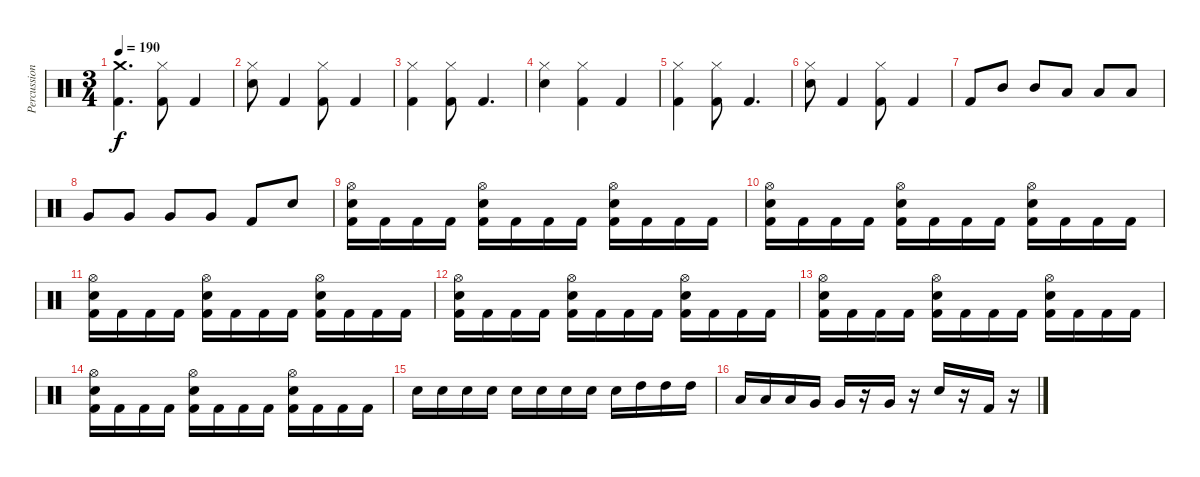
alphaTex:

\track ("Percussion" "Percussion") {instrument percussion}
\staff {score}
\articulation defaults
\ts (3 4)
\tempo 190
\clef neutral
\ks c
("Kick (hit) 2" "Crash medium (hit)").4{d dy f} ("Kick (hit) 2" "Hi-Hat (closed)").8 "Kick (hit) 2".4 |
("Snare (hit) 2" "Hi-Hat (closed)").8 "Kick (hit) 2".4 ("Kick (hit) 2" "Hi-Hat (closed)").8 "Kick (hit) 2".4 |
("Kick (hit) 2" "Hi-Hat (closed)").4 ("Kick (hit) 2" "Hi-Hat (closed)").8 "Kick (hit) 2".4{d} |
("Snare (hit) 2" "Hi-Hat (closed)").4 ("Kick (hit) 2" "Hi-Hat (closed)").4 "Kick (hit) 2".4 |
("Kick (hit) 2" "Hi-Hat (closed)").4 ("Kick (hit) 2" "Hi-Hat (closed)").8 "Kick (hit) 2".4{d} |
("Snare (hit) 2" "Hi-Hat (closed)").8 "Kick (hit) 2".4 ("Kick (hit) 2" "Hi-Hat (closed)").8 "Kick (hit) 2".4 |
"Kick (hit) 2".8 "Mid Tom (hit)".8 "Mid Tom (hit)".8 "Low Tom (hit)".8 "Low Tom (hit)".8 "Low Tom (hit)".8 |
"Very Low Tom (hit)".8 "Very Low Tom (hit)".8 "Very Low Tom (hit)".8 "Very Low Tom (hit)".8 "Kick (hit) 2".8 "Snare (hit) 2".8 |
("Kick (hit) 2" "Snare (hit) 2" "Hi-Hat (open)").16 "Kick (hit) 2".16 "Kick (hit) 2".16 "Kick (hit) 2".16 ("Kick (hit) 2" "Snare (hit) 2" "Hi-Hat (open)").16 "Kick (hit) 2".16 "Kick (hit) 2".16 "Kick (hit) 2".16 ("Kick (hit) 2" "Snare (hit) 2" "Hi-Hat (open)").16 "Kick (hit) 2".16 "Kick (hit) 2".16 "Kick (hit) 2".16 |
("Kick (hit) 2" "Snare (hit) 2" "Hi-Hat (open)").16 "Kick (hit) 2".16 "Kick (hit) 2".16 "Kick (hit) 2".16 ("Kick (hit) 2" "Snare (hit) 2" "Hi-Hat (open)").16 "Kick (hit) 2".16 "Kick (hit) 2".16 "Kick (hit) 2".16 ("Kick (hit) 2" "Snare (hit) 2" "Hi-Hat (open)").16 "Kick (hit) 2".16 "Kick (hit) 2".16 "Kick (hit) 2".16 |
("Kick (hit) 2" "Snare (hit) 2" "Hi-Hat (open)").16 "Kick (hit) 2".16 "Kick (hit) 2".16 "Kick (hit) 2".16 ("Kick (hit) 2" "Snare (hit) 2" "Hi-Hat (open)").16 "Kick (hit) 2".16 "Kick (hit) 2".16 "Kick (hit) 2".16 ("Kick (hit) 2" "Snare (hit) 2" "Hi-Hat (open)").16 "Kick (hit) 2".16 "Kick (hit) 2".16 "Kick (hit) 2".16 |
("Kick (hit) 2" "Snare (hit) 2" "Hi-Hat (open)").16 "Kick (hit) 2".16 "Kick (hit) 2".16 "Kick (hit) 2".16 ("Kick (hit) 2" "Snare (hit) 2" "Hi-Hat (open)").16 "Kick (hit) 2".16 "Kick (hit) 2".16 "Kick (hit) 2".16 ("Kick (hit) 2" "Snare (hit) 2" "Hi-Hat (open)").16 "Kick (hit) 2".16 "Kick (hit) 2".16 "Kick (hit) 2".16 |
("Kick (hit) 2" "Snare (hit) 2" "Hi-Hat (open)").16 "Kick (hit) 2".16 "Kick (hit) 2".16 "Kick (hit) 2".16 ("Kick (hit) 2" "Snare (hit) 2" "Hi-Hat (open)").16 "Kick (hit) 2".16 "Kick (hit) 2".16 "Kick (hit) 2".16 ("Kick (hit) 2" "Snare (hit) 2" "Hi-Hat (open)").16 "Kick (hit) 2".16 "Kick (hit) 2".16 "Kick (hit) 2".16 |
("Kick (hit) 2" "Snare (hit) 2" "Hi-Hat (open)").16 "Kick (hit) 2".16 "Kick (hit) 2".16 "Kick (hit) 2".16 ("Kick (hit) 2" "Snare (hit) 2" "Hi-Hat (open)").16 "Kick (hit) 2".16 "Kick (hit) 2".16 "Kick (hit) 2".16 ("Kick (hit) 2" "Snare (hit) 2" "Hi-Hat (open)").16 "Kick (hit) 2".16 "Kick (hit) 2".16 "Kick (hit) 2".16 |
"Snare (hit) 2".16 "Snare (hit) 2".16 "Snare (hit) 2".16 "Snare (hit) 2".16 "Snare (hit) 2".16 "Snare (hit) 2".16 "Snare (hit) 2".16 "Snare (hit) 2".16 "Snare (hit) 2".16 "High Tom (hit)".16 "High Tom (hit)".16 "High Tom (hit)".16 |
"Low Tom (hit)".16 "Low Tom (hit)".16 "Low Tom (hit)".16 "Very Low Tom (hit)".16 "Very Low Tom (hit)".16 r.16 "Very Low Tom (hit)".16 r.16 "Snare (hit) 2".16 r.16 "Kick (hit) 2".16 r.16
